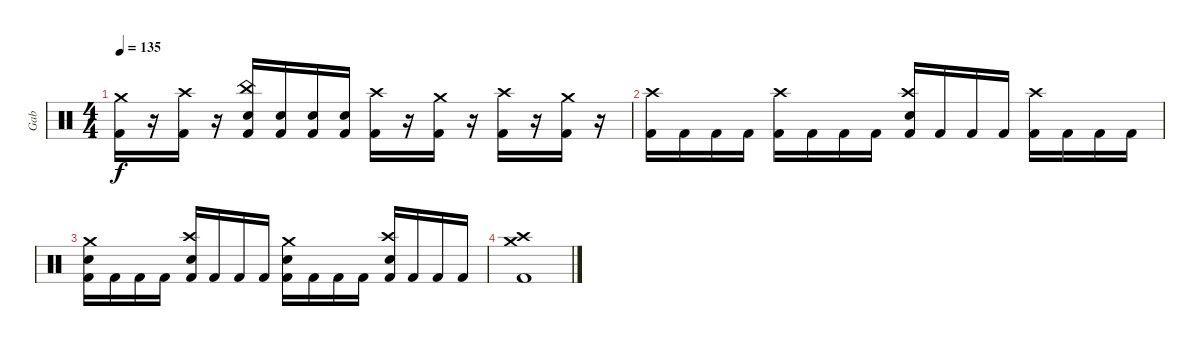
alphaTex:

\track ("Gab" "Gab") {instrument percussion}
\staff {score}
\articulation defaults
\ts (4 4)
\tempo 135
\clef neutral
\ks c
("Crash medium (hit)" "Kick (hit) 2").16{dy f} r.16 ("Crash high (hit)" "Kick (hit) 2").16 r.16 ("China (hit)" "Electric Snare (hit)" "Kick (hit) 2").16 ("Electric Snare (hit)" "Kick (hit) 2").16 ("Electric Snare (hit)" "Kick (hit) 2").16 ("Electric Snare (hit)" "Kick (hit) 2").16 ("Crash high (hit)" "Kick (hit) 2").16 r.16 ("Crash medium (hit)" "Kick (hit) 2").16 r.16 ("Crash high (hit)" "Kick (hit) 2").16 r.16 ("Crash medium (hit)" "Kick (hit) 2").16 r.16 |
("Crash high (hit)" "Kick (hit) 2").16 "Kick (hit) 2".16 "Kick (hit) 2".16 "Kick (hit) 2".16 ("Crash high (hit)" "Kick (hit) 2").16 "Kick (hit) 2".16 "Kick (hit) 2".16 "Kick (hit) 2".16 ("Crash high (hit)" "Electric Snare (hit)" "Kick (hit) 2").16 "Kick (hit) 2".16 "Kick (hit) 2".16 "Kick (hit) 2".16 ("Crash high (hit)" "Kick (hit) 2").16 "Kick (hit) 2".16 "Kick (hit) 2".16 "Kick (hit) 2".16 |
("Crash medium (hit)" "Electric Snare (hit)" "Kick (hit) 2").16 "Kick (hit) 2".16 "Kick (hit) 2".16 "Kick (hit) 2".16 ("Crash high (hit)" "Electric Snare (hit)" "Kick (hit) 2").16 "Kick (hit) 2".16 "Kick (hit) 2".16 "Kick (hit) 2".16 ("Crash medium (hit)" "Electric Snare (hit)" "Kick (hit) 2").16 "Kick (hit) 2".16 "Kick (hit) 2".16 "Kick (hit) 2".16 ("Crash high (hit)" "Electric Snare (hit)" "Kick (hit) 2").16 "Kick (hit) 2".16 "Kick (hit) 2".16 "Kick (hit) 2".16 |
("Crash medium (hit)" "Crash high (hit)" "Kick (hit) 2").1
